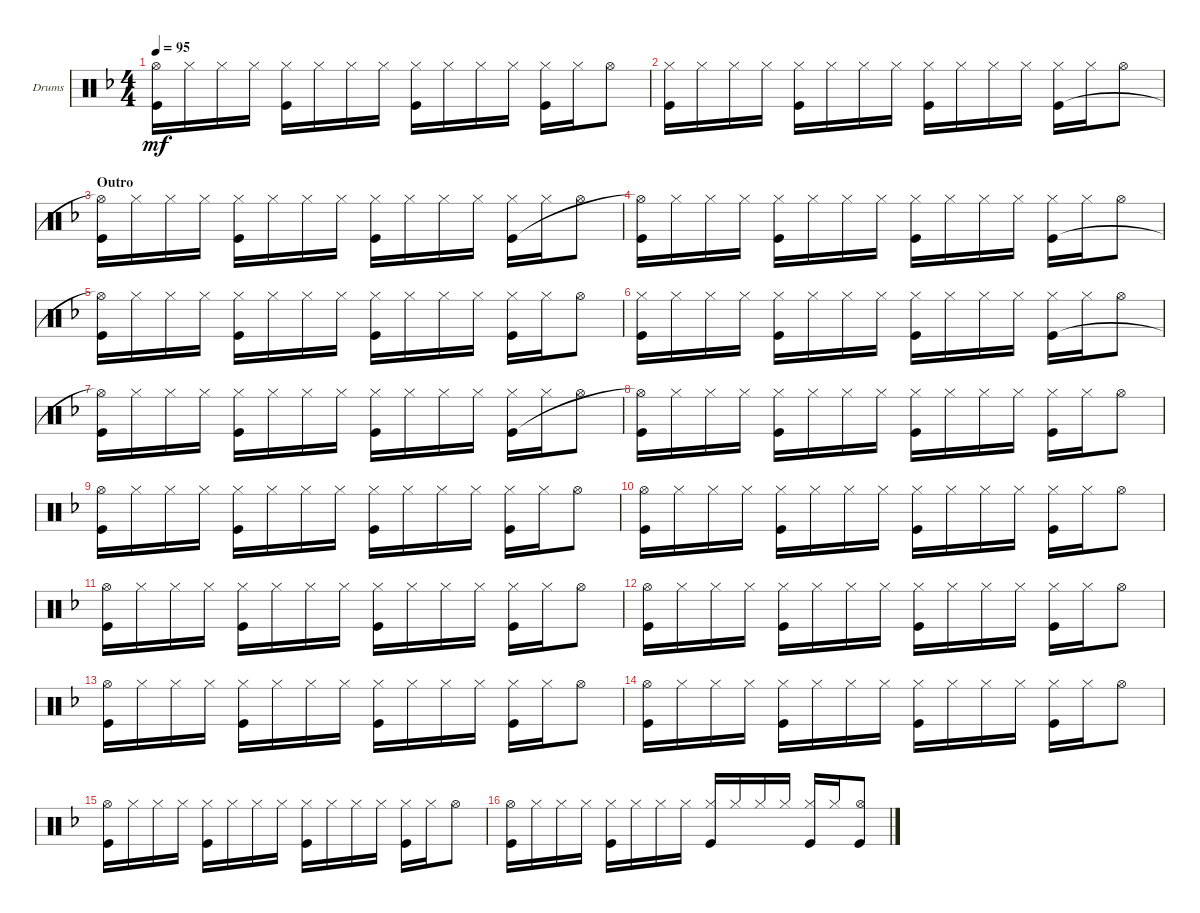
\defaultSystemsLayout 4
\bracketExtendMode groupsimilarinstruments
\firstSystemTrackNameOrientation horizontal
\otherSystemsTrackNameOrientation horizontal
\track ("Drumkit" "Drums") {solo instrument percussion}
\staff {score}
\articulation defaults
\ts (4 4)
\tempo 95
\clef neutral
\ks f
("Kick (hit)" "Hi-Hat (open)"{t}).16{dy mf} "Hi-Hat (closed)".16 "Hi-Hat (closed)".16 "Hi-Hat (closed)".16 ("Hi-Hat (closed)" "Kick (hit)").16 "Hi-Hat (closed)".16 "Hi-Hat (closed)".16 "Hi-Hat (closed)".16 ("Hi-Hat (closed)" "Kick (hit)").16 "Hi-Hat (closed)".16 "Hi-Hat (closed)".16 "Hi-Hat (closed)".16 ("Hi-Hat (closed)" "Kick (hit)").16 "Hi-Hat (closed)".16 "Hi-Hat (open)".8 |
("Kick (hit)" "Hi-Hat (closed)").16 "Hi-Hat (closed)".16 "Hi-Hat (closed)".16 "Hi-Hat (closed)".16 ("Hi-Hat (closed)" "Kick (hit)").16 "Hi-Hat (closed)".16 "Hi-Hat (closed)".16 "Hi-Hat (closed)".16 ("Hi-Hat (closed)" "Kick (hit)").16 "Hi-Hat (closed)".16 "Hi-Hat (closed)".16 "Hi-Hat (closed)".16 ("Hi-Hat (closed)" "Kick (hit)").16 "Hi-Hat (closed)".16 "Hi-Hat (open)".8 |
\section ("" "Outro")
("Kick (hit)" "Hi-Hat (open)"{t}).16 "Hi-Hat (closed)".16 "Hi-Hat (closed)".16 "Hi-Hat (closed)".16 ("Hi-Hat (closed)" "Kick (hit)").16 "Hi-Hat (closed)".16 "Hi-Hat (closed)".16 "Hi-Hat (closed)".16 ("Hi-Hat (closed)" "Kick (hit)").16 "Hi-Hat (closed)".16 "Hi-Hat (closed)".16 "Hi-Hat (closed)".16 ("Hi-Hat (closed)" "Kick (hit)").16 "Hi-Hat (closed)".16 "Hi-Hat (open)".8 |
("Kick (hit)" "Hi-Hat (open)"{t}).16 "Hi-Hat (closed)".16 "Hi-Hat (closed)".16 "Hi-Hat (closed)".16 ("Hi-Hat (closed)" "Kick (hit)").16 "Hi-Hat (closed)".16 "Hi-Hat (closed)".16 "Hi-Hat (closed)".16 ("Hi-Hat (closed)" "Kick (hit)").16 "Hi-Hat (closed)".16 "Hi-Hat (closed)".16 "Hi-Hat (closed)".16 ("Hi-Hat (closed)" "Kick (hit)").16 "Hi-Hat (closed)".16 "Hi-Hat (open)".8 |
("Kick (hit)" "Hi-Hat (open)"{t}).16 "Hi-Hat (closed)".16 "Hi-Hat (closed)".16 "Hi-Hat (closed)".16 ("Hi-Hat (closed)" "Kick (hit)").16 "Hi-Hat (closed)".16 "Hi-Hat (closed)".16 "Hi-Hat (closed)".16 ("Hi-Hat (closed)" "Kick (hit)").16 "Hi-Hat (closed)".16 "Hi-Hat (closed)".16 "Hi-Hat (closed)".16 ("Hi-Hat (closed)" "Kick (hit)").16 "Hi-Hat (closed)".16 "Hi-Hat (open)".8 |
("Kick (hit)" "Hi-Hat (closed)").16 "Hi-Hat (closed)".16 "Hi-Hat (closed)".16 "Hi-Hat (closed)".16 ("Hi-Hat (closed)" "Kick (hit)").16 "Hi-Hat (closed)".16 "Hi-Hat (closed)".16 "Hi-Hat (closed)".16 ("Hi-Hat (closed)" "Kick (hit)").16 "Hi-Hat (closed)".16 "Hi-Hat (closed)".16 "Hi-Hat (closed)".16 ("Hi-Hat (closed)" "Kick (hit)").16 "Hi-Hat (closed)".16 "Hi-Hat (open)".8 |
("Kick (hit)" "Hi-Hat (open)"{t}).16 "Hi-Hat (closed)".16 "Hi-Hat (closed)".16 "Hi-Hat (closed)".16 ("Hi-Hat (closed)" "Kick (hit)").16 "Hi-Hat (closed)".16 "Hi-Hat (closed)".16 "Hi-Hat (closed)".16 ("Hi-Hat (closed)" "Kick (hit)").16 "Hi-Hat (closed)".16 "Hi-Hat (closed)".16 "Hi-Hat (closed)".16 ("Hi-Hat (closed)" "Kick (hit)").16 "Hi-Hat (closed)".16 "Hi-Hat (open)".8 |
("Kick (hit)" "Hi-Hat (open)"{t}).16 "Hi-Hat (closed)".16 "Hi-Hat (closed)".16 "Hi-Hat (closed)".16 ("Hi-Hat (closed)" "Kick (hit)").16 "Hi-Hat (closed)".16 "Hi-Hat (closed)".16 "Hi-Hat (closed)".16 ("Hi-Hat (closed)" "Kick (hit)").16 "Hi-Hat (closed)".16 "Hi-Hat (closed)".16 "Hi-Hat (closed)".16 ("Hi-Hat (closed)" "Kick (hit)").16 "Hi-Hat (closed)".16 "Hi-Hat (open)".8 |
("Kick (hit)" "Hi-Hat (open)").16 "Hi-Hat (closed)".16 "Hi-Hat (closed)".16 "Hi-Hat (closed)".16 ("Hi-Hat (closed)" "Kick (hit)").16 "Hi-Hat (closed)".16 "Hi-Hat (closed)".16 "Hi-Hat (closed)".16 ("Hi-Hat (closed)" "Kick (hit)").16 "Hi-Hat (closed)".16 "Hi-Hat (closed)".16 "Hi-Hat (closed)".16 ("Hi-Hat (closed)" "Kick (hit)").16 "Hi-Hat (closed)".16 "Hi-Hat (open)".8 |
("Kick (hit)" "Hi-Hat (open)").16 "Hi-Hat (closed)".16 "Hi-Hat (closed)".16 "Hi-Hat (closed)".16 ("Hi-Hat (closed)" "Kick (hit)").16 "Hi-Hat (closed)".16 "Hi-Hat (closed)".16 "Hi-Hat (closed)".16 ("Hi-Hat (closed)" "Kick (hit)").16 "Hi-Hat (closed)".16 "Hi-Hat (closed)".16 "Hi-Hat (closed)".16 ("Hi-Hat (closed)" "Kick (hit)").16 "Hi-Hat (closed)".16 "Hi-Hat (open)".8 |
("Kick (hit)" "Hi-Hat (open)").16 "Hi-Hat (closed)".16 "Hi-Hat (closed)".16 "Hi-Hat (closed)".16 ("Hi-Hat (closed)" "Kick (hit)").16 "Hi-Hat (closed)".16 "Hi-Hat (closed)".16 "Hi-Hat (closed)".16 ("Hi-Hat (closed)" "Kick (hit)").16 "Hi-Hat (closed)".16 "Hi-Hat (closed)".16 "Hi-Hat (closed)".16 ("Hi-Hat (closed)" "Kick (hit)").16 "Hi-Hat (closed)".16 "Hi-Hat (open)".8 |
("Kick (hit)" "Hi-Hat (open)").16 "Hi-Hat (closed)".16 "Hi-Hat (closed)".16 "Hi-Hat (closed)".16 ("Hi-Hat (closed)" "Kick (hit)").16 "Hi-Hat (closed)".16 "Hi-Hat (closed)".16 "Hi-Hat (closed)".16 ("Hi-Hat (closed)" "Kick (hit)").16 "Hi-Hat (closed)".16 "Hi-Hat (closed)".16 "Hi-Hat (closed)".16 ("Hi-Hat (closed)" "Kick (hit)").16 "Hi-Hat (closed)".16 "Hi-Hat (open)".8 |
("Kick (hit)" "Hi-Hat (open)").16 "Hi-Hat (closed)".16 "Hi-Hat (closed)".16 "Hi-Hat (closed)".16 ("Hi-Hat (closed)" "Kick (hit)").16 "Hi-Hat (closed)".16 "Hi-Hat (closed)".16 "Hi-Hat (closed)".16 ("Hi-Hat (closed)" "Kick (hit)").16 "Hi-Hat (closed)".16 "Hi-Hat (closed)".16 "Hi-Hat (closed)".16 ("Hi-Hat (closed)" "Kick (hit)").16 "Hi-Hat (closed)".16 "Hi-Hat (open)".8 |
("Kick (hit)" "Hi-Hat (open)").16 "Hi-Hat (closed)".16 "Hi-Hat (closed)".16 "Hi-Hat (closed)".16 ("Hi-Hat (closed)" "Kick (hit)").16 "Hi-Hat (closed)".16 "Hi-Hat (closed)".16 "Hi-Hat (closed)".16 ("Hi-Hat (closed)" "Kick (hit)").16 "Hi-Hat (closed)".16 "Hi-Hat (closed)".16 "Hi-Hat (closed)".16 ("Hi-Hat (closed)" "Kick (hit)").16 "Hi-Hat (closed)".16 "Hi-Hat (open)".8 |
("Kick (hit)" "Hi-Hat (open)").16 "Hi-Hat (closed)".16 "Hi-Hat (closed)".16 "Hi-Hat (closed)".16 ("Hi-Hat (closed)" "Kick (hit)").16 "Hi-Hat (closed)".16 "Hi-Hat (closed)".16 "Hi-Hat (closed)".16 ("Hi-Hat (closed)" "Kick (hit)").16 "Hi-Hat (closed)".16 "Hi-Hat (closed)".16 "Hi-Hat (closed)".16 ("Hi-Hat (closed)" "Kick (hit)").16 "Hi-Hat (closed)".16 "Hi-Hat (open)".8 |
("Kick (hit)" "Hi-Hat (open)").16 "Hi-Hat (closed)".16 "Hi-Hat (closed)".16 "Hi-Hat (closed)".16 ("Hi-Hat (closed)" "Kick (hit)").16 "Hi-Hat (closed)".16 "Hi-Hat (closed)".16 "Hi-Hat (closed)".16 ("Hi-Hat (closed)" "Kick (hit)").16 "Hi-Hat (closed)".16 "Hi-Hat (closed)".16 "Hi-Hat (closed)".16 ("Hi-Hat (closed)" "Kick (hit)").16{beam invert} "Hi-Hat (closed)".16 ("Kick (hit)" "Hi-Hat (open)").8
